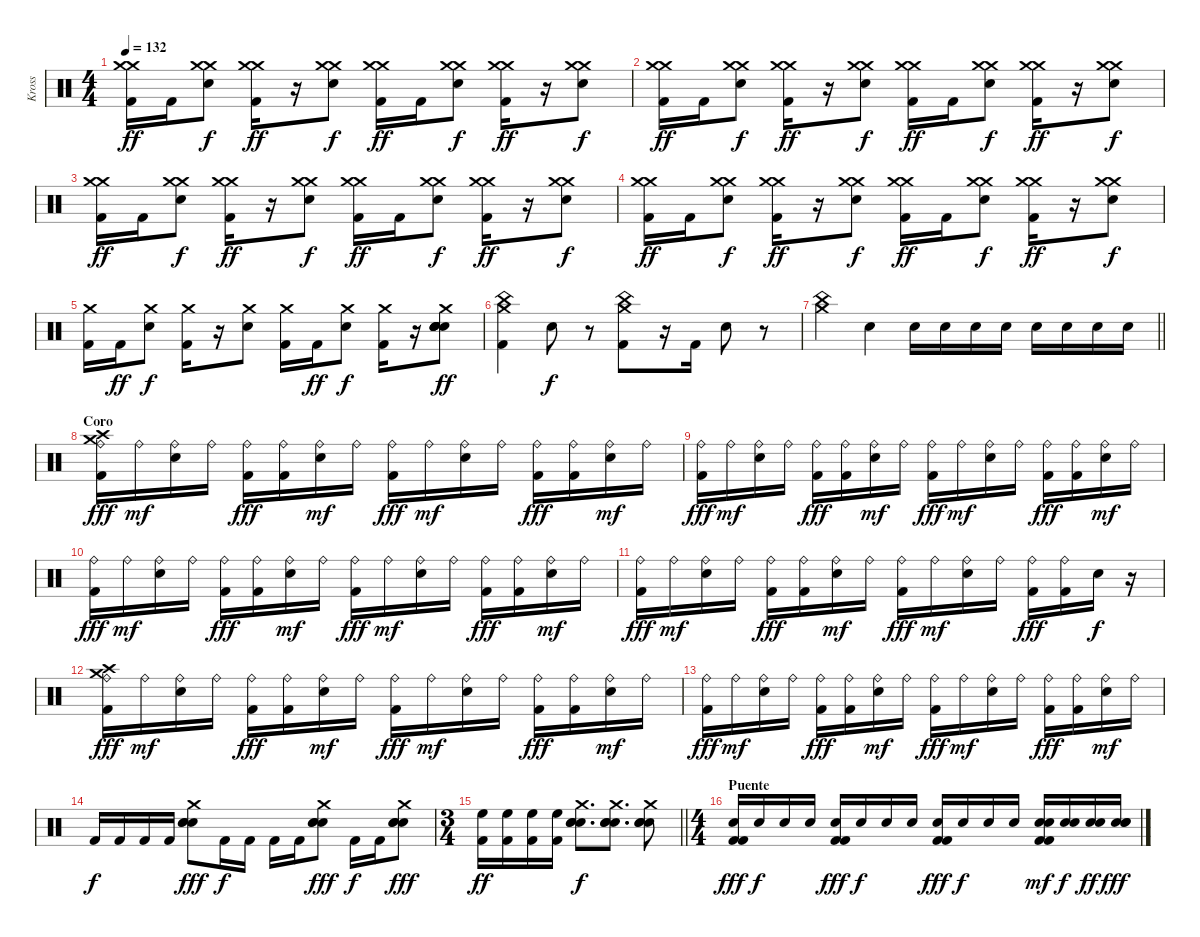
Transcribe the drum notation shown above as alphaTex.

\track ("Kross" "Kross") {instrument percussion}
\staff {score}
\articulation defaults
\ts (4 4)
\tempo 132
\clef neutral
\ks c
("Kick (hit) 2" "Crash medium (hit)" "Crash medium (hit)").16{dy ff} "Kick (hit) 2".16 ("Crash medium (hit)" "Crash medium (hit)" "Electric Snare (hit)").8{dy f} ("Kick (hit) 2" "Crash medium (hit)" "Crash medium (hit)").16{dy ff} r.16 ("Crash medium (hit)" "Crash medium (hit)" "Electric Snare (hit)").8{dy f} ("Kick (hit) 2" "Crash medium (hit)" "Crash medium (hit)").16{dy ff} "Kick (hit) 2".16 ("Crash medium (hit)" "Crash medium (hit)" "Electric Snare (hit)").8{dy f} ("Kick (hit) 2" "Crash medium (hit)" "Crash medium (hit)").16{dy ff} r.16 ("Crash medium (hit)" "Crash medium (hit)" "Electric Snare (hit)").8{dy f} |
("Kick (hit) 2" "Crash medium (hit)" "Crash medium (hit)").16{dy ff} "Kick (hit) 2".16 ("Crash medium (hit)" "Crash medium (hit)" "Electric Snare (hit)").8{dy f} ("Kick (hit) 2" "Crash medium (hit)" "Crash medium (hit)").16{dy ff} r.16 ("Crash medium (hit)" "Crash medium (hit)" "Electric Snare (hit)").8{dy f} ("Kick (hit) 2" "Crash medium (hit)" "Crash medium (hit)").16{dy ff} "Kick (hit) 2".16 ("Crash medium (hit)" "Crash medium (hit)" "Electric Snare (hit)").8{dy f} ("Kick (hit) 2" "Crash medium (hit)" "Crash medium (hit)").16{dy ff} r.16 ("Crash medium (hit)" "Crash medium (hit)" "Electric Snare (hit)").8{dy f} |
("Kick (hit) 2" "Crash medium (hit)" "Crash medium (hit)").16{dy ff} "Kick (hit) 2".16 ("Crash medium (hit)" "Crash medium (hit)" "Electric Snare (hit)").8{dy f} ("Kick (hit) 2" "Crash medium (hit)" "Crash medium (hit)").16{dy ff} r.16 ("Crash medium (hit)" "Crash medium (hit)" "Electric Snare (hit)").8{dy f} ("Kick (hit) 2" "Crash medium (hit)" "Crash medium (hit)").16{dy ff} "Kick (hit) 2".16 ("Crash medium (hit)" "Crash medium (hit)" "Electric Snare (hit)").8{dy f} ("Kick (hit) 2" "Crash medium (hit)" "Crash medium (hit)").16{dy ff} r.16 ("Crash medium (hit)" "Crash medium (hit)" "Electric Snare (hit)").8{dy f} |
("Kick (hit) 2" "Crash medium (hit)" "Crash medium (hit)").16{dy ff} "Kick (hit) 2".16 ("Crash medium (hit)" "Crash medium (hit)" "Electric Snare (hit)").8{dy f} ("Kick (hit) 2" "Crash medium (hit)" "Crash medium (hit)").16{dy ff} r.16 ("Crash medium (hit)" "Crash medium (hit)" "Electric Snare (hit)").8{dy f} ("Kick (hit) 2" "Crash medium (hit)" "Crash medium (hit)").16{dy ff} "Kick (hit) 2".16 ("Crash medium (hit)" "Crash medium (hit)" "Electric Snare (hit)").8{dy f} ("Kick (hit) 2" "Crash medium (hit)" "Crash medium (hit)").16{dy ff} r.16 ("Crash medium (hit)" "Crash medium (hit)" "Electric Snare (hit)").8{dy f} |
("Kick (hit) 2" "Crash medium (hit)").16 "Kick (hit) 2".16{dy ff} ("Crash medium (hit)" "Electric Snare (hit)").8{dy f} ("Kick (hit) 2" "Crash medium (hit)").16 r.16 ("Crash medium (hit)" "Electric Snare (hit)").8 ("Kick (hit) 2" "Crash medium (hit)").16 "Kick (hit) 2".16{dy ff} ("Crash medium (hit)" "Electric Snare (hit)").8{dy f} ("Kick (hit) 2" "Crash medium (hit)").16 r.16 ("Electric Snare (hit)" "Electric Snare (hit)" "Electric Snare (hit)" "Electric Snare (hit)" "Crash medium (hit)" "Electric Snare (hit)").8{dy ff} |
("Kick (hit) 2" "China (hit)" "Crash medium (hit)").4 "Snare (hit) 2".8{dy f} r.8 ("Crash medium (hit)" "China (hit)" "Kick (hit) 2").8 r.16 "Kick (hit) 2".16 "Snare (hit) 2".8 r.8 |
\barLineRight lightlight
("China (hit)" "Crash medium (hit)").4 "Snare (hit) 2".4 "Snare (hit) 2".16 "Snare (hit) 2".16 "Snare (hit) 2".16 "Snare (hit) 2".16 "Snare (hit) 2".16 "Snare (hit) 2".16 "Snare (hit) 2".16 "Snare (hit) 2".16 |
\section ("" "Coro")
("Crash high (hit)" "Crash medium (hit)" "Ride (bell)" "Kick (hit) 2").16{dy fff} "Ride (bell)".16{dy mf} ("Ride (bell)" "Electric Snare (hit)").16 "Ride (bell)".16 ("Ride (bell)" "Kick (hit) 2").16{dy fff} ("Ride (bell)" "Kick (hit) 2").16 ("Ride (bell)" "Electric Snare (hit)").16{dy mf} "Ride (bell)".16 ("Ride (bell)" "Kick (hit) 2").16{dy fff} "Ride (bell)".16{dy mf} ("Ride (bell)" "Electric Snare (hit)").16 "Ride (bell)".16 ("Ride (bell)" "Kick (hit) 2").16{dy fff} ("Ride (bell)" "Kick (hit) 2").16 ("Ride (bell)" "Electric Snare (hit)").16{dy mf} "Ride (bell)".16 |
("Ride (bell)" "Kick (hit) 2").16{dy fff} "Ride (bell)".16{dy mf} ("Ride (bell)" "Electric Snare (hit)").16 "Ride (bell)".16 ("Ride (bell)" "Kick (hit) 2").16{dy fff} ("Ride (bell)" "Kick (hit) 2").16 ("Ride (bell)" "Electric Snare (hit)").16{dy mf} "Ride (bell)".16 ("Ride (bell)" "Kick (hit) 2").16{dy fff} "Ride (bell)".16{dy mf} ("Ride (bell)" "Electric Snare (hit)").16 "Ride (bell)".16 ("Ride (bell)" "Kick (hit) 2").16{dy fff} ("Ride (bell)" "Kick (hit) 2").16 ("Ride (bell)" "Electric Snare (hit)").16{dy mf} "Ride (bell)".16 |
("Ride (bell)" "Kick (hit) 2").16{dy fff} "Ride (bell)".16{dy mf} ("Ride (bell)" "Electric Snare (hit)").16 "Ride (bell)".16 ("Ride (bell)" "Kick (hit) 2").16{dy fff} ("Ride (bell)" "Kick (hit) 2").16 ("Ride (bell)" "Electric Snare (hit)").16{dy mf} "Ride (bell)".16 ("Ride (bell)" "Kick (hit) 2").16{dy fff} "Ride (bell)".16{dy mf} ("Ride (bell)" "Electric Snare (hit)").16 "Ride (bell)".16 ("Ride (bell)" "Kick (hit) 2").16{dy fff} ("Ride (bell)" "Kick (hit) 2").16 ("Ride (bell)" "Electric Snare (hit)").16{dy mf} "Ride (bell)".16 |
("Ride (bell)" "Kick (hit) 2").16{dy fff} "Ride (bell)".16{dy mf} ("Ride (bell)" "Electric Snare (hit)").16 "Ride (bell)".16 ("Ride (bell)" "Kick (hit) 2").16{dy fff} ("Ride (bell)" "Kick (hit) 2").16 ("Ride (bell)" "Electric Snare (hit)").16{dy mf} "Ride (bell)".16 ("Ride (bell)" "Kick (hit) 2").16{dy fff} "Ride (bell)".16{dy mf} ("Ride (bell)" "Electric Snare (hit)").16 "Ride (bell)".16 ("Ride (bell)" "Kick (hit) 2").16{dy fff} ("Ride (bell)" "Kick (hit) 2").16 "Electric Snare (hit)".16{dy f} r.16 |
("Crash high (hit)" "Crash medium (hit)" "Ride (bell)" "Kick (hit) 2").16{dy fff} "Ride (bell)".16{dy mf} ("Ride (bell)" "Electric Snare (hit)").16 "Ride (bell)".16 ("Ride (bell)" "Kick (hit) 2").16{dy fff} ("Ride (bell)" "Kick (hit) 2").16 ("Ride (bell)" "Electric Snare (hit)").16{dy mf} "Ride (bell)".16 ("Ride (bell)" "Kick (hit) 2").16{dy fff} "Ride (bell)".16{dy mf} ("Ride (bell)" "Electric Snare (hit)").16 "Ride (bell)".16 ("Ride (bell)" "Kick (hit) 2").16{dy fff} ("Ride (bell)" "Kick (hit) 2").16 ("Ride (bell)" "Electric Snare (hit)").16{dy mf} "Ride (bell)".16 |
("Ride (bell)" "Kick (hit) 2").16{dy fff} "Ride (bell)".16{dy mf} ("Ride (bell)" "Electric Snare (hit)").16 "Ride (bell)".16 ("Ride (bell)" "Kick (hit) 2").16{dy fff} ("Ride (bell)" "Kick (hit) 2").16 ("Ride (bell)" "Electric Snare (hit)").16{dy mf} "Ride (bell)".16 ("Ride (bell)" "Kick (hit) 2").16{dy fff} "Ride (bell)".16{dy mf} ("Ride (bell)" "Electric Snare (hit)").16 "Ride (bell)".16 ("Ride (bell)" "Kick (hit) 2").16{dy fff} ("Ride (bell)" "Kick (hit) 2").16 ("Ride (bell)" "Electric Snare (hit)").16{dy mf} "Ride (bell)".16 |
"Kick (hit) 2".16{dy f} "Kick (hit) 2".16 "Kick (hit) 2".16 "Kick (hit) 2".16 ("Crash medium (hit)" "Electric Snare (hit)" "Electric Snare (hit)" "Electric Snare (hit)").8{dy fff} "Kick (hit) 2".16{dy f} "Kick (hit) 2".16 "Kick (hit) 2".16 "Kick (hit) 2".16 ("Crash medium (hit)" "Electric Snare (hit)" "Electric Snare (hit)" "Electric Snare (hit)").8{dy fff} "Kick (hit) 2".16{dy f} "Kick (hit) 2".16 ("Crash medium (hit)" "Electric Snare (hit)" "Electric Snare (hit)" "Electric Snare (hit)").8{dy fff} |
\ts (3 4)
\barLineRight lightlight
("High Floor Tom (hit)" "Kick (hit) 2").16{dy ff} ("High Floor Tom (hit)" "Kick (hit) 2").16 ("High Floor Tom (hit)" "Kick (hit) 2").16 ("High Floor Tom (hit)" "Kick (hit) 2").16 ("Crash medium (hit)" "Electric Snare (hit)" "Electric Snare (hit)" "Electric Snare (hit)").8{d dy f} ("Crash medium (hit)" "Electric Snare (hit)" "Electric Snare (hit)" "Electric Snare (hit)").8{d} ("Crash medium (hit)" "Electric Snare (hit)" "Electric Snare (hit)" "Electric Snare (hit)").8 |
\ts (4 4)
\section ("" "Puente")
("Kick (hit) 2" "Kick (hit) 2" "Electric Snare (hit)").16{dy fff} "Electric Snare (hit)".16{dy f} "Electric Snare (hit)".16 "Electric Snare (hit)".16 ("Kick (hit) 2" "Kick (hit) 2" "Electric Snare (hit)").16{dy fff} "Electric Snare (hit)".16{dy f} "Electric Snare (hit)".16 "Electric Snare (hit)".16 ("Kick (hit) 2" "Kick (hit) 2" "Electric Snare (hit)").16{dy fff} "Electric Snare (hit)".16{dy f} "Electric Snare (hit)".16 "Electric Snare (hit)".16 ("Kick (hit) 2" "Kick (hit) 2" "Electric Snare (hit)" "Electric Snare (hit)").16{dy mf} ("Electric Snare (hit)" "Electric Snare (hit)").16{dy f} ("Electric Snare (hit)" "Electric Snare (hit)").16{dy ff} ("Electric Snare (hit)" "Electric Snare (hit)" "Electric Snare (hit)").16{dy fff}
